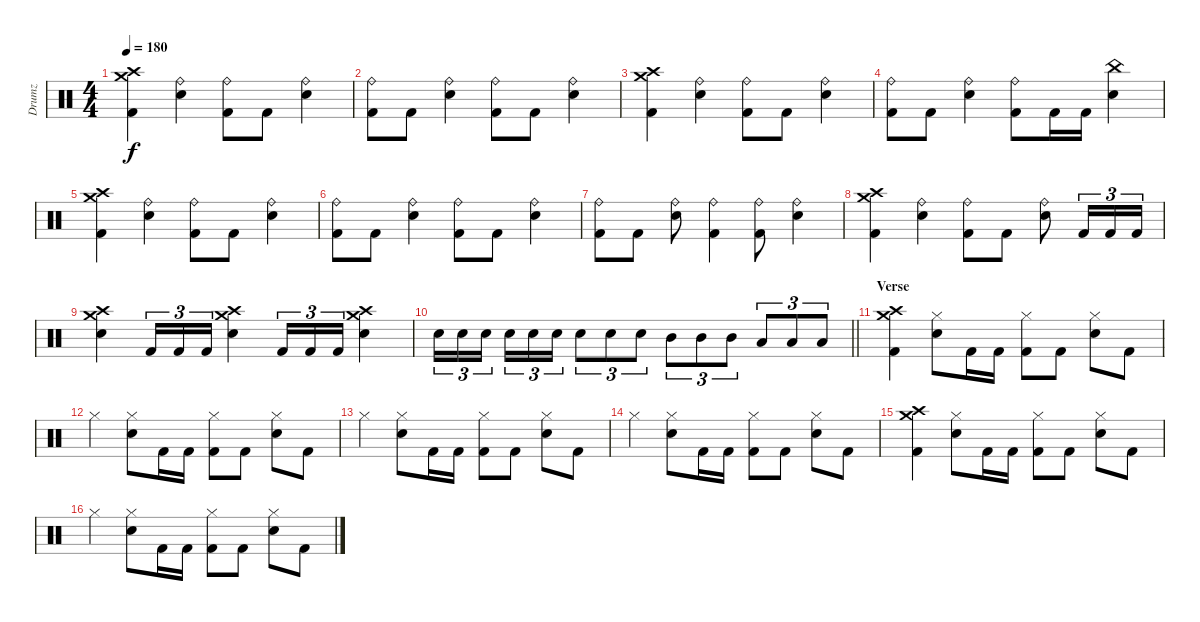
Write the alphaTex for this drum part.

\track ("Drumz" "Drumz") {instrument percussion}
\staff {score}
\articulation defaults
\ts (4 4)
\tempo 180
\clef neutral
\ks c
("Crash high (hit)" "Crash medium (hit)" "Kick (hit) 2").4{dy f} ("Ride (bell)" "Electric Snare (hit)").4 ("Ride (bell)" "Kick (hit) 2").8 "Kick (hit) 2".8 ("Ride (bell)" "Electric Snare (hit)").4 |
("Ride (bell)" "Kick (hit) 2").8 "Kick (hit) 2".8 ("Ride (bell)" "Electric Snare (hit)").4 ("Ride (bell)" "Kick (hit) 2").8 "Kick (hit) 2".8 ("Ride (bell)" "Electric Snare (hit)").4 |
("Crash high (hit)" "Crash medium (hit)" "Kick (hit) 2").4 ("Ride (bell)" "Electric Snare (hit)").4 ("Ride (bell)" "Kick (hit) 2").8 "Kick (hit) 2".8 ("Ride (bell)" "Electric Snare (hit)").4 |
("Ride (bell)" "Kick (hit) 2").8 "Kick (hit) 2".8 ("Ride (bell)" "Electric Snare (hit)").4 ("Ride (bell)" "Kick (hit) 2").8 "Kick (hit) 2".16 "Kick (hit) 2".16 ("China (hit)" "Electric Snare (hit)").4 |
("Crash high (hit)" "Crash medium (hit)" "Kick (hit) 2").4 ("Ride (bell)" "Electric Snare (hit)").4 ("Ride (bell)" "Kick (hit) 2").8 "Kick (hit) 2".8 ("Ride (bell)" "Electric Snare (hit)").4 |
("Ride (bell)" "Kick (hit) 2").8 "Kick (hit) 2".8 ("Ride (bell)" "Electric Snare (hit)").4 ("Ride (bell)" "Kick (hit) 2").8 "Kick (hit) 2".8 ("Ride (bell)" "Electric Snare (hit)").4 |
("Ride (bell)" "Kick (hit) 2").8 "Kick (hit) 2".8 ("Ride (bell)" "Electric Snare (hit)").8 ("Ride (bell)" "Kick (hit) 2").4 ("Ride (bell)" "Kick (hit) 2").8 ("Ride (bell)" "Electric Snare (hit)").4 |
("Crash high (hit)" "Crash medium (hit)" "Kick (hit) 2").4 ("Ride (bell)" "Electric Snare (hit)").4 ("Ride (bell)" "Kick (hit) 2").8 "Kick (hit) 2".8 ("Ride (bell)" "Electric Snare (hit)").8 "Kick (hit) 2".16{tu (3 2)} "Kick (hit) 2".16{tu (3 2)} "Kick (hit) 2".16{tu (3 2)} |
("Crash medium (hit)" "Crash high (hit)" "Electric Snare (hit)").4 "Kick (hit) 2".16{tu (3 2)} "Kick (hit) 2".16{tu (3 2)} "Kick (hit) 2".16{tu (3 2)} ("Crash medium (hit)" "Crash high (hit)" "Electric Snare (hit)").4 "Kick (hit) 2".16{tu (3 2)} "Kick (hit) 2".16{tu (3 2)} "Kick (hit) 2".16{tu (3 2)} ("Crash medium (hit)" "Crash high (hit)" "Electric Snare (hit)").4 |
\barLineRight lightlight "Electric Snare (hit)".16{tu (3 2)} "Electric Snare (hit)".16{tu (3 2)} "Electric Snare (hit)".16{tu (3 2) beam splitsecondary} "Electric Snare (hit)".16{tu (3 2)} "Electric Snare (hit)".16{tu (3 2)} "Electric Snare (hit)".16{tu (3 2)} "Electric Snare (hit)".8{tu (3 2)} "Electric Snare (hit)".8{tu (3 2)} "Electric Snare (hit)".8{tu (3 2)} "Mid Tom (hit)".8{tu (3 2)} "Mid Tom (hit)".8{tu (3 2)} "Mid Tom (hit)".8{tu (3 2)} "Low Tom (hit)".8{tu (3 2)} "Low Tom (hit)".8{tu (3 2)} "Low Tom (hit)".8{tu (3 2)}
|
\section ("" "Verse")
("Crash medium (hit)" "Crash high (hit)" "Kick (hit) 2").4 ("Hi-Hat (closed)" "Electric Snare (hit)").8 "Kick (hit) 2".16 "Kick (hit) 2".16 ("Hi-Hat (closed)" "Kick (hit) 2").8 "Kick (hit) 2".8 ("Hi-Hat (closed)" "Electric Snare (hit)").8 "Kick (hit) 2".8 |
"Hi-Hat (closed)".4 ("Hi-Hat (closed)" "Electric Snare (hit)").8 "Kick (hit) 2".16 "Kick (hit) 2".16 ("Hi-Hat (closed)" "Kick (hit) 2").8 "Kick (hit) 2".8 ("Hi-Hat (closed)" "Electric Snare (hit)").8 "Kick (hit) 2".8 |
"Hi-Hat (closed)".4 ("Hi-Hat (closed)" "Electric Snare (hit)").8 "Kick (hit) 2".16 "Kick (hit) 2".16 ("Hi-Hat (closed)" "Kick (hit) 2").8 "Kick (hit) 2".8 ("Hi-Hat (closed)" "Electric Snare (hit)").8 "Kick (hit) 2".8 |
"Hi-Hat (closed)".4 ("Hi-Hat (closed)" "Electric Snare (hit)").8 "Kick (hit) 2".16 "Kick (hit) 2".16 ("Hi-Hat (closed)" "Kick (hit) 2").8 "Kick (hit) 2".8 ("Hi-Hat (closed)" "Electric Snare (hit)").8 "Kick (hit) 2".8 |
("Crash medium (hit)" "Crash high (hit)" "Kick (hit) 2").4 ("Hi-Hat (closed)" "Electric Snare (hit)").8 "Kick (hit) 2".16 "Kick (hit) 2".16 ("Hi-Hat (closed)" "Kick (hit) 2").8 "Kick (hit) 2".8 ("Hi-Hat (closed)" "Electric Snare (hit)").8 "Kick (hit) 2".8 |
"Hi-Hat (closed)".4 ("Hi-Hat (closed)" "Electric Snare (hit)").8 "Kick (hit) 2".16 "Kick (hit) 2".16 ("Hi-Hat (closed)" "Kick (hit) 2").8 "Kick (hit) 2".8 ("Hi-Hat (closed)" "Electric Snare (hit)").8 "Kick (hit) 2".8
